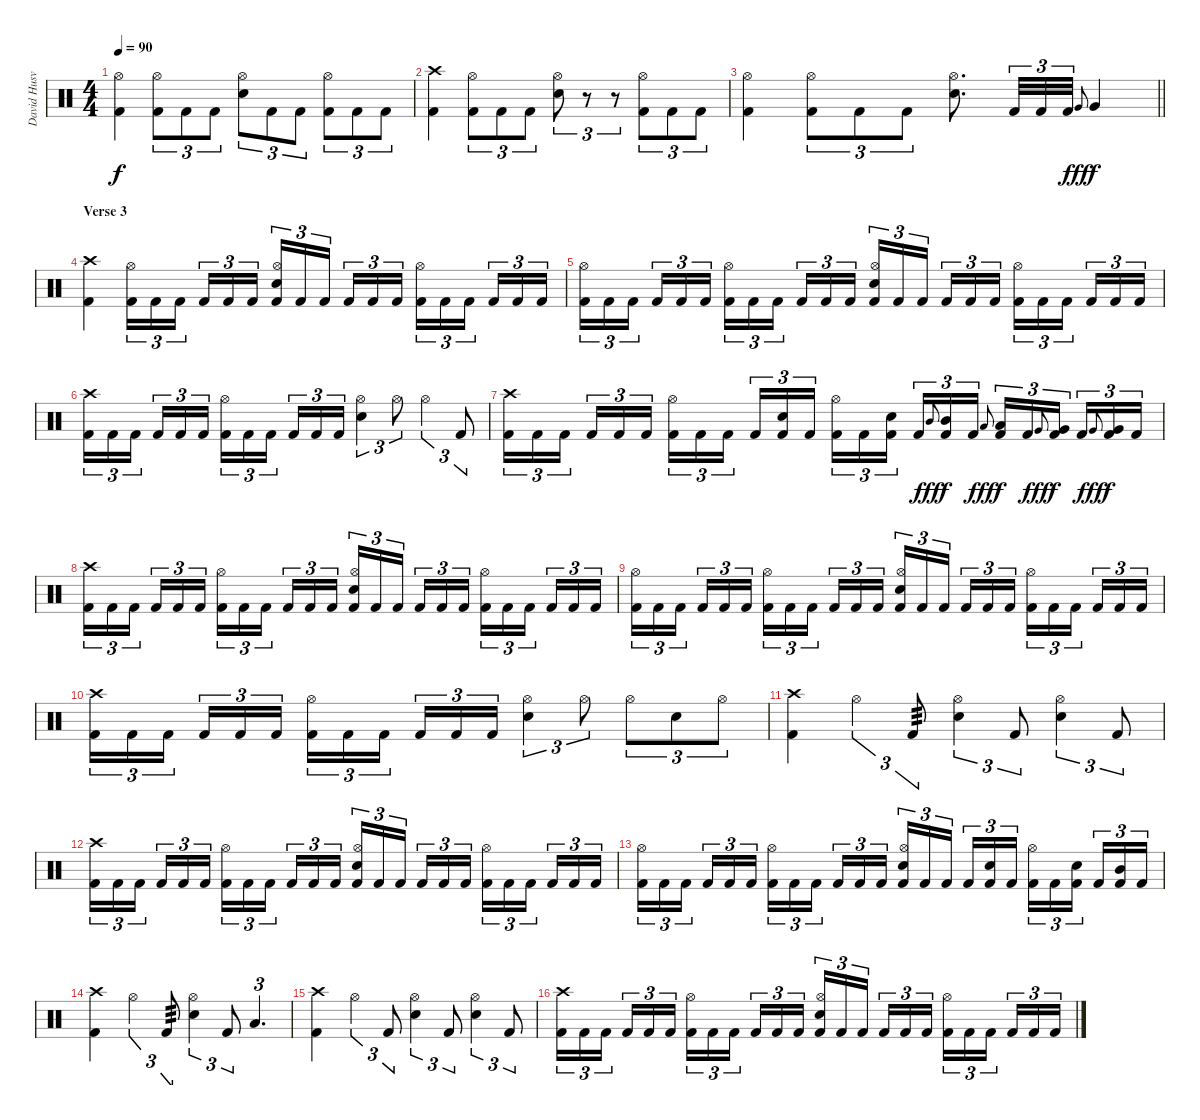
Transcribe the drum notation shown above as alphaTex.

\track ("David Husvik" "David Husv") {instrument percussion}
\staff {score}
\articulation defaults
\ts (4 4)
\tempo 90
\clef neutral
\ks c
("Kick (hit) 2" "Hi-Hat (open)").4{dy f} ("Hi-Hat (open)" "Kick (hit) 2").8{tu (3 2)} "Kick (hit) 2".8{tu (3 2)} "Kick (hit) 2".8{tu (3 2)} ("Hi-Hat (open)" "Snare (hit) 2").8{tu (3 2)} "Kick (hit) 2".8{tu (3 2)} "Kick (hit) 2".8{tu (3 2)} ("Hi-Hat (open)" "Kick (hit) 2").8{tu (3 2)} "Kick (hit) 2".8{tu (3 2)} "Kick (hit) 2".8{tu (3 2)} |
("Kick (hit) 2" "Crash high (hit)").4 ("Hi-Hat (open)" "Kick (hit) 2").8{tu (3 2)} "Kick (hit) 2".8{tu (3 2)} "Kick (hit) 2".8{tu (3 2)} ("Hi-Hat (open)" "Snare (hit) 2").8{tu (3 2)} r.8{tu (3 2)} r.8{tu (3 2)} ("Kick (hit) 2" "Hi-Hat (open)").8{tu (3 2)} "Kick (hit) 2".8{tu (3 2)} "Kick (hit) 2".8{tu (3 2)} |
\barLineRight lightlight
("Kick (hit) 2" "Hi-Hat (open)").4 ("Hi-Hat (open)" "Kick (hit) 2").8{tu (3 2)} "Kick (hit) 2".8{tu (3 2)} "Kick (hit) 2".8{tu (3 2)} ("Hi-Hat (open)" "Snare (hit) 2").8{d} "Kick (hit) 2".32{tu (3 2)} "Kick (hit) 2".32{tu (3 2)} "Kick (hit) 2".32{tu (3 2)} "Very Low Tom (hit)".8{gr onbeat dy fff} "Very Low Tom (hit)".4{dy f} |
\section ("" "Verse 3")
("Kick (hit) 2" "Crash high (hit)").4 ("Kick (hit) 2" "Hi-Hat (open)").16{tu (3 2)} "Kick (hit) 2".16{tu (3 2)} "Kick (hit) 2".16{tu (3 2) beam splitsecondary} "Kick (hit) 2".16{tu (3 2)} "Kick (hit) 2".16{tu (3 2)} "Kick (hit) 2".16{tu (3 2)} ("Kick (hit) 2" "Hi-Hat (open)" "Snare (hit) 2").16{tu (3 2)} "Kick (hit) 2".16{tu (3 2)} "Kick (hit) 2".16{tu (3 2) beam splitsecondary} "Kick (hit) 2".16{tu (3 2)} "Kick (hit) 2".16{tu (3 2)} "Kick (hit) 2".16{tu (3 2)} ("Kick (hit) 2" "Hi-Hat (open)").16{tu (3 2)} "Kick (hit) 2".16{tu (3 2)} "Kick (hit) 2".16{tu (3 2) beam splitsecondary} "Kick (hit) 2".16{tu (3 2)} "Kick (hit) 2".16{tu (3 2)} "Kick (hit) 2".16{tu (3 2)} |
("Kick (hit) 2" "Hi-Hat (open)").16{tu (3 2)} "Kick (hit) 2".16{tu (3 2)} "Kick (hit) 2".16{tu (3 2) beam splitsecondary} "Kick (hit) 2".16{tu (3 2)} "Kick (hit) 2".16{tu (3 2)} "Kick (hit) 2".16{tu (3 2)} ("Kick (hit) 2" "Hi-Hat (open)").16{tu (3 2)} "Kick (hit) 2".16{tu (3 2)} "Kick (hit) 2".16{tu (3 2) beam splitsecondary} "Kick (hit) 2".16{tu (3 2)} "Kick (hit) 2".16{tu (3 2)} "Kick (hit) 2".16{tu (3 2)} ("Kick (hit) 2" "Hi-Hat (open)" "Snare (hit) 2").16{tu (3 2)} "Kick (hit) 2".16{tu (3 2)} "Kick (hit) 2".16{tu (3 2) beam splitsecondary} "Kick (hit) 2".16{tu (3 2)} "Kick (hit) 2".16{tu (3 2)} "Kick (hit) 2".16{tu (3 2)} ("Kick (hit) 2" "Hi-Hat (open)").16{tu (3 2)} "Kick (hit) 2".16{tu (3 2)} "Kick (hit) 2".16{tu (3 2) beam splitsecondary} "Kick (hit) 2".16{tu (3 2)} "Kick (hit) 2".16{tu (3 2)} "Kick (hit) 2".16{tu (3 2)} |
("Kick (hit) 2" "Crash high (hit)").16{tu (3 2)} "Kick (hit) 2".16{tu (3 2)} "Kick (hit) 2".16{tu (3 2) beam splitsecondary} "Kick (hit) 2".16{tu (3 2)} "Kick (hit) 2".16{tu (3 2)} "Kick (hit) 2".16{tu (3 2)} ("Kick (hit) 2" "Hi-Hat (open)").16{tu (3 2)} "Kick (hit) 2".16{tu (3 2)} "Kick (hit) 2".16{tu (3 2) beam splitsecondary} "Kick (hit) 2".16{tu (3 2)} "Kick (hit) 2".16{tu (3 2)} "Kick (hit) 2".16{tu (3 2)} ("Snare (hit) 2" "Hi-Hat (open)").4{tu (3 2)} "Hi-Hat (open)".8{tu (3 2)} "Hi-Hat (open)".4{tu (3 2)} "Kick (hit) 2".8{tu (3 2)} |
("Kick (hit) 2" "Crash high (hit)").16{tu (3 2)} "Kick (hit) 2".16{tu (3 2)} "Kick (hit) 2".16{tu (3 2) beam splitsecondary} "Kick (hit) 2".16{tu (3 2)} "Kick (hit) 2".16{tu (3 2)} "Kick (hit) 2".16{tu (3 2)} ("Kick (hit) 2" "Hi-Hat (open)").16{tu (3 2)} "Kick (hit) 2".16{tu (3 2)} "Kick (hit) 2".16{tu (3 2) beam splitsecondary} "Kick (hit) 2".16{tu (3 2)} ("Kick (hit) 2" "Snare (hit) 2").16{tu (3 2)} "Kick (hit) 2".16{tu (3 2)} ("Kick (hit) 2" "Hi-Hat (open)").16{tu (3 2)} "Kick (hit) 2".16{tu (3 2)} ("Kick (hit) 2" "Snare (hit) 2").16{tu (3 2) beam splitsecondary} "Kick (hit) 2".16{tu (3 2)} "Mid Tom (hit)".8{gr onbeat dy fff} ("Kick (hit) 2" "Mid Tom (hit)").16{tu (3 2) dy f} "Kick (hit) 2".16{tu (3 2)} "Low Tom (hit)".8{gr onbeat dy fff} ("Kick (hit) 2" "Low Tom (hit)").16{tu (3 2) dy f} "Kick (hit) 2".16{tu (3 2)} "Very Low Tom (hit)".8{gr onbeat dy fff} ("Kick (hit) 2" "Very Low Tom (hit)").16{tu (3 2) dy f beam splitsecondary} "Kick (hit) 2".16{tu (3 2)} "Very Low Tom (hit)".8{gr onbeat dy fff} ("Kick (hit) 2" "Very Low Tom (hit)").16{tu (3 2) dy f} "Kick (hit) 2".16{tu (3 2)} |
("Kick (hit) 2" "Crash high (hit)").16{tu (3 2)} "Kick (hit) 2".16{tu (3 2)} "Kick (hit) 2".16{tu (3 2) beam splitsecondary} "Kick (hit) 2".16{tu (3 2)} "Kick (hit) 2".16{tu (3 2)} "Kick (hit) 2".16{tu (3 2)} ("Kick (hit) 2" "Hi-Hat (open)").16{tu (3 2)} "Kick (hit) 2".16{tu (3 2)} "Kick (hit) 2".16{tu (3 2) beam splitsecondary} "Kick (hit) 2".16{tu (3 2)} "Kick (hit) 2".16{tu (3 2)} "Kick (hit) 2".16{tu (3 2)} ("Kick (hit) 2" "Hi-Hat (open)" "Snare (hit) 2").16{tu (3 2)} "Kick (hit) 2".16{tu (3 2)} "Kick (hit) 2".16{tu (3 2) beam splitsecondary} "Kick (hit) 2".16{tu (3 2)} "Kick (hit) 2".16{tu (3 2)} "Kick (hit) 2".16{tu (3 2)} ("Kick (hit) 2" "Hi-Hat (open)").16{tu (3 2)} "Kick (hit) 2".16{tu (3 2)} "Kick (hit) 2".16{tu (3 2) beam splitsecondary} "Kick (hit) 2".16{tu (3 2)} "Kick (hit) 2".16{tu (3 2)} "Kick (hit) 2".16{tu (3 2)} |
("Kick (hit) 2" "Hi-Hat (open)").16{tu (3 2)} "Kick (hit) 2".16{tu (3 2)} "Kick (hit) 2".16{tu (3 2) beam splitsecondary} "Kick (hit) 2".16{tu (3 2)} "Kick (hit) 2".16{tu (3 2)} "Kick (hit) 2".16{tu (3 2)} ("Kick (hit) 2" "Hi-Hat (open)").16{tu (3 2)} "Kick (hit) 2".16{tu (3 2)} "Kick (hit) 2".16{tu (3 2) beam splitsecondary} "Kick (hit) 2".16{tu (3 2)} "Kick (hit) 2".16{tu (3 2)} "Kick (hit) 2".16{tu (3 2)} ("Kick (hit) 2" "Hi-Hat (open)" "Snare (hit) 2").16{tu (3 2)} "Kick (hit) 2".16{tu (3 2)} "Kick (hit) 2".16{tu (3 2) beam splitsecondary} "Kick (hit) 2".16{tu (3 2)} "Kick (hit) 2".16{tu (3 2)} "Kick (hit) 2".16{tu (3 2)} ("Kick (hit) 2" "Hi-Hat (open)").16{tu (3 2)} "Kick (hit) 2".16{tu (3 2)} "Kick (hit) 2".16{tu (3 2) beam splitsecondary} "Kick (hit) 2".16{tu (3 2)} "Kick (hit) 2".16{tu (3 2)} "Kick (hit) 2".16{tu (3 2)} |
("Kick (hit) 2" "Crash high (hit)").16{tu (3 2)} "Kick (hit) 2".16{tu (3 2)} "Kick (hit) 2".16{tu (3 2) beam splitsecondary} "Kick (hit) 2".16{tu (3 2)} "Kick (hit) 2".16{tu (3 2)} "Kick (hit) 2".16{tu (3 2)} ("Kick (hit) 2" "Hi-Hat (open)").16{tu (3 2)} "Kick (hit) 2".16{tu (3 2)} "Kick (hit) 2".16{tu (3 2) beam splitsecondary} "Kick (hit) 2".16{tu (3 2)} "Kick (hit) 2".16{tu (3 2)} "Kick (hit) 2".16{tu (3 2)} ("Snare (hit) 2" "Hi-Hat (open)").4{tu (3 2)} "Hi-Hat (open)".8{tu (3 2)} "Hi-Hat (open)".8{tu (3 2)} "Snare (hit) 2".8{tu (3 2)} "Hi-Hat (open)".8{tu (3 2)} |
("Crash high (hit)" "Kick (hit) 2").4 "Hi-Hat (open)".4{tu (3 2)} "Kick (hit) 2".8{tu (3 2) tp 3} ("Hi-Hat (open)" "Snare (hit) 2").4{tu (3 2)} "Kick (hit) 2".8{tu (3 2)} ("Hi-Hat (open)" "Snare (hit) 2").4{tu (3 2)} "Kick (hit) 2".8{tu (3 2)} |
("Kick (hit) 2" "Crash high (hit)").16{tu (3 2)} "Kick (hit) 2".16{tu (3 2)} "Kick (hit) 2".16{tu (3 2) beam splitsecondary} "Kick (hit) 2".16{tu (3 2)} "Kick (hit) 2".16{tu (3 2)} "Kick (hit) 2".16{tu (3 2)} ("Kick (hit) 2" "Hi-Hat (open)").16{tu (3 2)} "Kick (hit) 2".16{tu (3 2)} "Kick (hit) 2".16{tu (3 2) beam splitsecondary} "Kick (hit) 2".16{tu (3 2)} "Kick (hit) 2".16{tu (3 2)} "Kick (hit) 2".16{tu (3 2)} ("Kick (hit) 2" "Hi-Hat (open)" "Snare (hit) 2").16{tu (3 2)} "Kick (hit) 2".16{tu (3 2)} "Kick (hit) 2".16{tu (3 2) beam splitsecondary} "Kick (hit) 2".16{tu (3 2)} "Kick (hit) 2".16{tu (3 2)} "Kick (hit) 2".16{tu (3 2)} ("Kick (hit) 2" "Hi-Hat (open)").16{tu (3 2)} "Kick (hit) 2".16{tu (3 2)} "Kick (hit) 2".16{tu (3 2) beam splitsecondary} "Kick (hit) 2".16{tu (3 2)} "Kick (hit) 2".16{tu (3 2)} "Kick (hit) 2".16{tu (3 2)} |
("Kick (hit) 2" "Hi-Hat (open)").16{tu (3 2)} "Kick (hit) 2".16{tu (3 2)} "Kick (hit) 2".16{tu (3 2) beam splitsecondary} "Kick (hit) 2".16{tu (3 2)} "Kick (hit) 2".16{tu (3 2)} "Kick (hit) 2".16{tu (3 2)} ("Kick (hit) 2" "Hi-Hat (open)").16{tu (3 2)} "Kick (hit) 2".16{tu (3 2)} "Kick (hit) 2".16{tu (3 2) beam splitsecondary} "Kick (hit) 2".16{tu (3 2)} "Kick (hit) 2".16{tu (3 2)} "Kick (hit) 2".16{tu (3 2)} ("Kick (hit) 2" "Hi-Hat (open)" "Snare (hit) 2").16{tu (3 2)} "Kick (hit) 2".16{tu (3 2)} "Kick (hit) 2".16{tu (3 2) beam splitsecondary} "Kick (hit) 2".16{tu (3 2)} ("Kick (hit) 2" "Snare (hit) 2").16{tu (3 2)} "Kick (hit) 2".16{tu (3 2)} ("Kick (hit) 2" "Hi-Hat (open)").16{tu (3 2)} "Kick (hit) 2".16{tu (3 2)} ("Kick (hit) 2" "Snare (hit) 2").16{tu (3 2) beam splitsecondary} "Kick (hit) 2".16{tu (3 2)} ("Kick (hit) 2" "Mid Tom (hit)").16{tu (3 2)} "Kick (hit) 2".16{tu (3 2)} |
("Crash high (hit)" "Kick (hit) 2").4 "Hi-Hat (open)".4{tu (3 2)} "Kick (hit) 2".8{tu (3 2) tp 3} ("Hi-Hat (open)" "Snare (hit) 2").4{tu (3 2)} "Kick (hit) 2".8{tu (3 2)} "Low Tom (hit)".4{d tu (3 2)} |
("Crash high (hit)" "Kick (hit) 2").4 "Hi-Hat (open)".4{tu (3 2)} "Kick (hit) 2".8{tu (3 2)} ("Hi-Hat (open)" "Snare (hit) 2").4{tu (3 2)} "Kick (hit) 2".8{tu (3 2)} ("Hi-Hat (open)" "Snare (hit) 2").4{tu (3 2)} "Kick (hit) 2".8{tu (3 2)} |
("Kick (hit) 2" "Crash high (hit)").16{tu (3 2)} "Kick (hit) 2".16{tu (3 2)} "Kick (hit) 2".16{tu (3 2) beam splitsecondary} "Kick (hit) 2".16{tu (3 2)} "Kick (hit) 2".16{tu (3 2)} "Kick (hit) 2".16{tu (3 2)} ("Kick (hit) 2" "Hi-Hat (open)").16{tu (3 2)} "Kick (hit) 2".16{tu (3 2)} "Kick (hit) 2".16{tu (3 2) beam splitsecondary} "Kick (hit) 2".16{tu (3 2)} "Kick (hit) 2".16{tu (3 2)} "Kick (hit) 2".16{tu (3 2)} ("Kick (hit) 2" "Hi-Hat (open)" "Snare (hit) 2").16{tu (3 2)} "Kick (hit) 2".16{tu (3 2)} "Kick (hit) 2".16{tu (3 2) beam splitsecondary} "Kick (hit) 2".16{tu (3 2)} "Kick (hit) 2".16{tu (3 2)} "Kick (hit) 2".16{tu (3 2)} ("Kick (hit) 2" "Hi-Hat (open)").16{tu (3 2)} "Kick (hit) 2".16{tu (3 2)} "Kick (hit) 2".16{tu (3 2) beam splitsecondary} "Kick (hit) 2".16{tu (3 2)} "Kick (hit) 2".16{tu (3 2)} "Kick (hit) 2".16{tu (3 2)}
